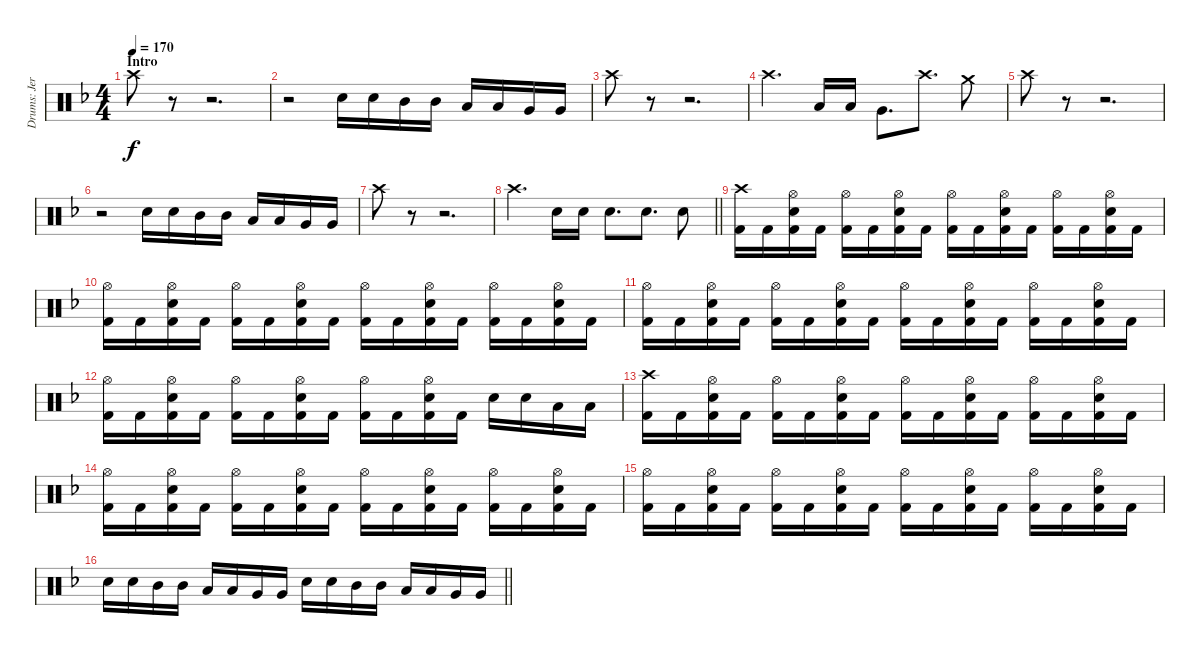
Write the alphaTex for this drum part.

\track ("Drums: Jere Luokkamäki" "Drums: Jer") {instrument percussion}
\staff {score}
\articulation defaults
\ts (4 4)
\section ("" "Intro")
\tempo 170
\clef neutral
\ks dminor "Crash high (hit)".8{dy f}
r.8 r.2{d} |
r.2 "Electric Snare (hit)".16 "Electric Snare (hit)".16 "Mid Tom (hit)".16 "Mid Tom (hit)".16 "Low Tom (hit)".16 "Low Tom (hit)".16 "Very Low Tom (hit)".16 "Very Low Tom (hit)".16 |
"Crash high (hit)".8 r.8 r.2{d} |
"Crash high (hit)".4{d} "Low Tom (hit)".16 "Low Tom (hit)".16 "Very Low Tom (hit)".8{d} "Crash high (hit)".8{d} "Crash medium (hit)".8 |
"Crash high (hit)".8 r.8 r.2{d} |
r.2 "Electric Snare (hit)".16 "Electric Snare (hit)".16 "Mid Tom (hit)".16 "Mid Tom (hit)".16 "Low Tom (hit)".16 "Low Tom (hit)".16 "Very Low Tom (hit)".16 "Very Low Tom (hit)".16 |
"Crash high (hit)".8 r.8 r.2{d} |
\barLineRight lightlight "Crash high (hit)".4{d} "Electric Snare (hit)".16 "Electric Snare (hit)".16 "Electric Snare (hit)".8{d} "Electric Snare (hit)".8{d} "Electric Snare (hit)".8
|
("Crash high (hit)" "Kick (hit) 2").16 "Kick (hit) 2".16 ("Hi-Hat (open)" "Electric Snare (hit)" "Kick (hit) 2").16 "Kick (hit) 2".16 ("Hi-Hat (open)" "Kick (hit) 2").16 "Kick (hit) 2".16 ("Hi-Hat (open)" "Electric Snare (hit)" "Kick (hit) 2").16 "Kick (hit) 2".16 ("Hi-Hat (open)" "Kick (hit) 2").16 "Kick (hit) 2".16 ("Hi-Hat (open)" "Electric Snare (hit)" "Kick (hit) 2").16 "Kick (hit) 2".16 ("Hi-Hat (open)" "Kick (hit) 2").16 "Kick (hit) 2".16 ("Hi-Hat (open)" "Electric Snare (hit)" "Kick (hit) 2").16 "Kick (hit) 2".16 |
("Hi-Hat (open)" "Kick (hit) 2").16 "Kick (hit) 2".16 ("Hi-Hat (open)" "Electric Snare (hit)" "Kick (hit) 2").16 "Kick (hit) 2".16 ("Hi-Hat (open)" "Kick (hit) 2").16 "Kick (hit) 2".16 ("Hi-Hat (open)" "Electric Snare (hit)" "Kick (hit) 2").16 "Kick (hit) 2".16 ("Hi-Hat (open)" "Kick (hit) 2").16 "Kick (hit) 2".16 ("Hi-Hat (open)" "Electric Snare (hit)" "Kick (hit) 2").16 "Kick (hit) 2".16 ("Hi-Hat (open)" "Kick (hit) 2").16 "Kick (hit) 2".16 ("Hi-Hat (open)" "Electric Snare (hit)" "Kick (hit) 2").16 "Kick (hit) 2".16 |
("Hi-Hat (open)" "Kick (hit) 2").16 "Kick (hit) 2".16 ("Hi-Hat (open)" "Electric Snare (hit)" "Kick (hit) 2").16 "Kick (hit) 2".16 ("Hi-Hat (open)" "Kick (hit) 2").16 "Kick (hit) 2".16 ("Hi-Hat (open)" "Electric Snare (hit)" "Kick (hit) 2").16 "Kick (hit) 2".16 ("Hi-Hat (open)" "Kick (hit) 2").16 "Kick (hit) 2".16 ("Hi-Hat (open)" "Electric Snare (hit)" "Kick (hit) 2").16 "Kick (hit) 2".16 ("Hi-Hat (open)" "Kick (hit) 2").16 "Kick (hit) 2".16 ("Hi-Hat (open)" "Electric Snare (hit)" "Kick (hit) 2").16 "Kick (hit) 2".16 |
("Hi-Hat (open)" "Kick (hit) 2").16 "Kick (hit) 2".16 ("Hi-Hat (open)" "Electric Snare (hit)" "Kick (hit) 2").16 "Kick (hit) 2".16 ("Hi-Hat (open)" "Kick (hit) 2").16 "Kick (hit) 2".16 ("Hi-Hat (open)" "Electric Snare (hit)" "Kick (hit) 2").16 "Kick (hit) 2".16 ("Hi-Hat (open)" "Kick (hit) 2").16 "Kick (hit) 2".16 ("Hi-Hat (open)" "Electric Snare (hit)" "Kick (hit) 2").16 "Kick (hit) 2".16 "Electric Snare (hit)".16 "Electric Snare (hit)".16 "Low Tom (hit)".16 "Low Tom (hit)".16 |
("Crash high (hit)" "Kick (hit) 2").16 "Kick (hit) 2".16 ("Hi-Hat (open)" "Electric Snare (hit)" "Kick (hit) 2").16 "Kick (hit) 2".16 ("Hi-Hat (open)" "Kick (hit) 2").16 "Kick (hit) 2".16 ("Hi-Hat (open)" "Electric Snare (hit)" "Kick (hit) 2").16 "Kick (hit) 2".16 ("Hi-Hat (open)" "Kick (hit) 2").16 "Kick (hit) 2".16 ("Hi-Hat (open)" "Electric Snare (hit)" "Kick (hit) 2").16 "Kick (hit) 2".16 ("Hi-Hat (open)" "Kick (hit) 2").16 "Kick (hit) 2".16 ("Hi-Hat (open)" "Electric Snare (hit)" "Kick (hit) 2").16 "Kick (hit) 2".16 |
("Hi-Hat (open)" "Kick (hit) 2").16 "Kick (hit) 2".16 ("Hi-Hat (open)" "Electric Snare (hit)" "Kick (hit) 2").16 "Kick (hit) 2".16 ("Hi-Hat (open)" "Kick (hit) 2").16 "Kick (hit) 2".16 ("Hi-Hat (open)" "Electric Snare (hit)" "Kick (hit) 2").16 "Kick (hit) 2".16 ("Hi-Hat (open)" "Kick (hit) 2").16 "Kick (hit) 2".16 ("Hi-Hat (open)" "Electric Snare (hit)" "Kick (hit) 2").16 "Kick (hit) 2".16 ("Hi-Hat (open)" "Kick (hit) 2").16 "Kick (hit) 2".16 ("Hi-Hat (open)" "Electric Snare (hit)" "Kick (hit) 2").16 "Kick (hit) 2".16 |
("Hi-Hat (open)" "Kick (hit) 2").16 "Kick (hit) 2".16 ("Hi-Hat (open)" "Electric Snare (hit)" "Kick (hit) 2").16 "Kick (hit) 2".16 ("Hi-Hat (open)" "Kick (hit) 2").16 "Kick (hit) 2".16 ("Hi-Hat (open)" "Electric Snare (hit)" "Kick (hit) 2").16 "Kick (hit) 2".16 ("Hi-Hat (open)" "Kick (hit) 2").16 "Kick (hit) 2".16 ("Hi-Hat (open)" "Electric Snare (hit)" "Kick (hit) 2").16 "Kick (hit) 2".16 ("Hi-Hat (open)" "Kick (hit) 2").16 "Kick (hit) 2".16 ("Hi-Hat (open)" "Electric Snare (hit)" "Kick (hit) 2").16 "Kick (hit) 2".16 |
\barLineRight lightlight "Electric Snare (hit)".16 "Electric Snare (hit)".16 "Mid Tom (hit)".16 "Mid Tom (hit)".16 "Low Tom (hit)".16 "Low Tom (hit)".16 "Very Low Tom (hit)".16 "Very Low Tom (hit)".16 "Electric Snare (hit)".16 "Electric Snare (hit)".16 "Mid Tom (hit)".16 "Mid Tom (hit)".16 "Low Tom (hit)".16 "Low Tom (hit)".16 "Very Low Tom (hit)".16 "Very Low Tom (hit)".16
